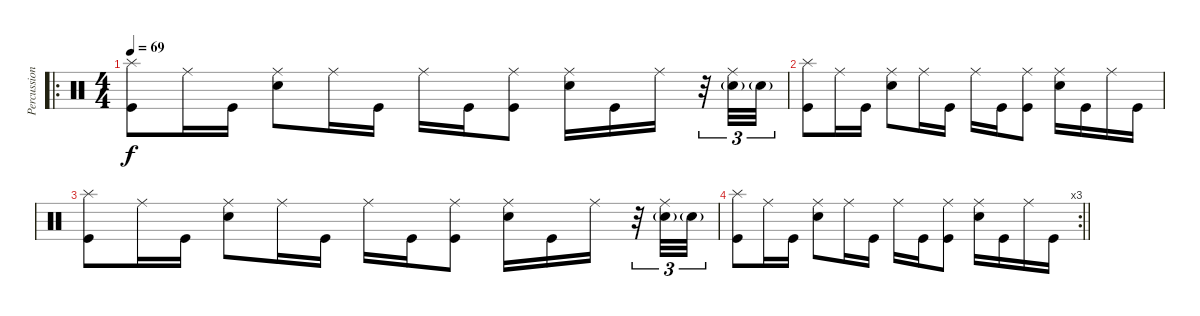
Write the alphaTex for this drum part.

\track ("Percussion" "Percussion") {instrument percussion}
\staff {score}
\articulation defaults
\ro
\ts (4 4)
\tempo 69
\clef neutral
\ks c
("Splash (hit)" "Kick (hit)").8{dy f} "Ride (middle)".16 "Kick (hit)".16 ("Electric Snare (hit)" "Ride (middle)").8 "Ride (middle)".16 "Kick (hit)".16 "Ride (middle)".16 "Kick (hit)".16 ("Kick (hit)" "Ride (middle)").8 ("Electric Snare (hit)" "Ride (middle)").16 "Kick (hit)".16 "Ride (middle)".16 r.32{tu (3 2)} ("Electric Snare (hit)"{g} "Ride (middle)").32{tu (3 2)} "Electric Snare (hit)"{g}.32{tu (3 2)} |
("Splash (hit)" "Kick (hit)").8 "Ride (middle)".16 "Kick (hit)".16 ("Electric Snare (hit)" "Ride (middle)").8 "Ride (middle)".16 "Kick (hit)".16 "Ride (middle)".16 "Kick (hit)".16 ("Kick (hit)" "Ride (middle)").8 ("Electric Snare (hit)" "Ride (middle)").16 "Kick (hit)".16 "Ride (middle)".16 "Kick (hit)".16 |
("Splash (hit)" "Kick (hit)").8 "Ride (middle)".16 "Kick (hit)".16 ("Electric Snare (hit)" "Ride (middle)").8 "Ride (middle)".16 "Kick (hit)".16 "Ride (middle)".16 "Kick (hit)".16 ("Kick (hit)" "Ride (middle)").8 ("Electric Snare (hit)" "Ride (middle)").16 "Kick (hit)".16 "Ride (middle)".16 r.32{tu (3 2)} ("Electric Snare (hit)"{g} "Ride (middle)").32{tu (3 2)} "Electric Snare (hit)"{g}.32{tu (3 2)} |
\rc 3
\barLineRight lightlight
("Splash (hit)" "Kick (hit)").8 "Ride (middle)".16 "Kick (hit)".16 ("Electric Snare (hit)" "Ride (middle)").8 "Ride (middle)".16 "Kick (hit)".16 "Ride (middle)".16 "Kick (hit)".16 ("Kick (hit)" "Ride (middle)").8 ("Electric Snare (hit)" "Ride (middle)").16 "Kick (hit)".16 "Ride (middle)".16 "Kick (hit)".16
